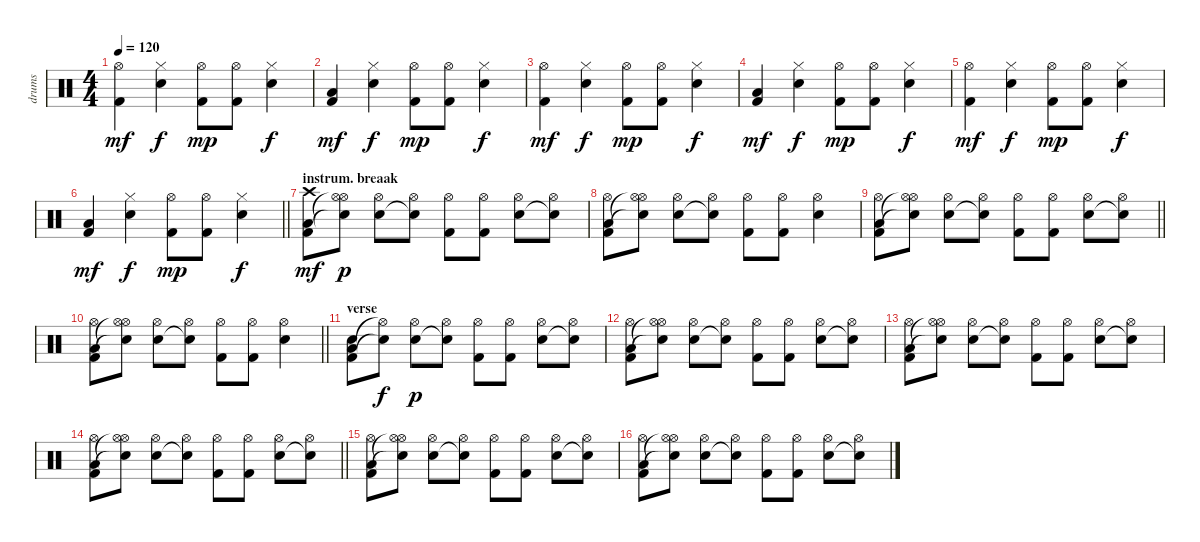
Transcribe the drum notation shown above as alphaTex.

\track ("drums" "drums") {instrument percussion}
\staff {score}
\articulation defaults
\ts (4 4)
\tempo 120
\clef neutral
\ks c
("Kick (hit) 2" "Hi-Hat (open)").4{dy mf} ("Electric Snare (hit)" "Hi-Hat (closed)").4{dy f} ("Kick (hit) 2" "Hi-Hat (open)").8{dy mp} ("Kick (hit) 2" "Hi-Hat (open)").8 ("Electric Snare (hit)" "Hi-Hat (closed)").4{dy f} |
("Kick (hit) 2" "Low Floor Tom (hit)").4{dy mf} ("Electric Snare (hit)" "Hi-Hat (closed)").4{dy f} ("Kick (hit) 2" "Hi-Hat (open)").8{dy mp} ("Kick (hit) 2" "Hi-Hat (open)").8 ("Electric Snare (hit)" "Hi-Hat (closed)").4{dy f} |
("Kick (hit) 2" "Hi-Hat (open)").4{dy mf} ("Electric Snare (hit)" "Hi-Hat (closed)").4{dy f} ("Kick (hit) 2" "Hi-Hat (open)").8{dy mp} ("Kick (hit) 2" "Hi-Hat (open)").8 ("Electric Snare (hit)" "Hi-Hat (closed)").4{dy f} |
("Kick (hit) 2" "Low Floor Tom (hit)").4{dy mf} ("Electric Snare (hit)" "Hi-Hat (closed)").4{dy f} ("Kick (hit) 2" "Hi-Hat (open)").8{dy mp} ("Kick (hit) 2" "Hi-Hat (open)").8 ("Electric Snare (hit)" "Hi-Hat (closed)").4{dy f} |
("Kick (hit) 2" "Hi-Hat (open)").4{dy mf} ("Electric Snare (hit)" "Hi-Hat (closed)").4{dy f} ("Kick (hit) 2" "Hi-Hat (open)").8{dy mp} ("Kick (hit) 2" "Hi-Hat (open)").8 ("Electric Snare (hit)" "Hi-Hat (closed)").4{dy f} |
\barLineRight lightlight
("Kick (hit) 2" "Low Floor Tom (hit)").4{dy mf} ("Electric Snare (hit)" "Hi-Hat (closed)").4{dy f} ("Kick (hit) 2" "Hi-Hat (open)").8{dy mp} ("Kick (hit) 2" "Hi-Hat (open)").8 ("Electric Snare (hit)" "Hi-Hat (closed)").4{dy f} |
\section ("" "instrum. breaak")
("Kick (hit) 2" "Crash high (hit)" "Low Floor Tom (hit)").8{dy mf} ("Snare (hit)"{t} "Hi-Hat (open)" "Hi-Hat (open)"{t}).8{dy p} ("Electric Snare (hit)" "Hi-Hat (open)").8 ("Snare (hit)"{t} "Hi-Hat (open)").8 ("Kick (hit) 2" "Hi-Hat (open)").8 ("Kick (hit) 2" "Hi-Hat (open)").8 ("Electric Snare (hit)" "Hi-Hat (open)").8 ("Snare (hit)"{t} "Hi-Hat (open)").8 |
("Kick (hit) 2" "Hi-Hat (open)" "Low Floor Tom (hit)").8 ("Snare (hit)"{t} "Hi-Hat (open)" "Hi-Hat (open)"{t}).8 ("Electric Snare (hit)" "Hi-Hat (open)").8 ("Snare (hit)"{t} "Hi-Hat (open)").8 ("Kick (hit) 2" "Hi-Hat (open)").8 ("Kick (hit) 2" "Hi-Hat (open)").8 ("Electric Snare (hit)" "Hi-Hat (open)").4 |
\barLineRight lightlight
("Kick (hit) 2" "Hi-Hat (open)" "Low Floor Tom (hit)").8 ("Snare (hit)"{t} "Hi-Hat (open)" "Hi-Hat (open)"{t}).8 ("Electric Snare (hit)" "Hi-Hat (open)").8 ("Snare (hit)"{t} "Hi-Hat (open)").8 ("Kick (hit) 2" "Hi-Hat (open)").8 ("Kick (hit) 2" "Hi-Hat (open)").8 ("Electric Snare (hit)" "Hi-Hat (open)").8 ("Snare (hit)"{t} "Hi-Hat (open)").8 |
\barLineRight lightlight
("Kick (hit) 2" "Hi-Hat (open)" "Low Floor Tom (hit)").8 ("Snare (hit)"{t} "Hi-Hat (open)" "Hi-Hat (open)"{t}).8 ("Electric Snare (hit)" "Hi-Hat (open)").8 ("Snare (hit)"{t} "Hi-Hat (open)").8 ("Kick (hit) 2" "Hi-Hat (open)").8 ("Kick (hit) 2" "Hi-Hat (open)").8 ("Electric Snare (hit)" "Hi-Hat (open)").4 |
\section ("" "verse")
("Kick (hit) 2" "Low Floor Tom (hit)" "Electric Snare (hit)").8 ("Snare (hit)"{t} "Hi-Hat (open)"{t}).8{dy f} ("Electric Snare (hit)" "Hi-Hat (open)").8{dy p} ("Snare (hit)"{t} "Hi-Hat (open)").8 ("Kick (hit) 2" "Hi-Hat (open)").8 ("Kick (hit) 2" "Hi-Hat (open)").8 ("Electric Snare (hit)" "Hi-Hat (open)").8 ("Snare (hit)"{t} "Hi-Hat (open)").8 |
("Kick (hit) 2" "Hi-Hat (open)" "Low Floor Tom (hit)").8 ("Snare (hit)"{t} "Hi-Hat (open)" "Hi-Hat (open)"{t}).8 ("Electric Snare (hit)" "Hi-Hat (open)").8 ("Snare (hit)"{t} "Hi-Hat (open)").8 ("Kick (hit) 2" "Hi-Hat (open)").8 ("Kick (hit) 2" "Hi-Hat (open)").8 ("Electric Snare (hit)" "Hi-Hat (open)").8 ("Snare (hit)"{t} "Hi-Hat (open)").8 |
("Kick (hit) 2" "Hi-Hat (open)" "Low Floor Tom (hit)").8 ("Snare (hit)"{t} "Hi-Hat (open)" "Hi-Hat (open)"{t}).8 ("Electric Snare (hit)" "Hi-Hat (open)").8 ("Snare (hit)"{t} "Hi-Hat (open)").8 ("Kick (hit) 2" "Hi-Hat (open)").8 ("Kick (hit) 2" "Hi-Hat (open)").8 ("Electric Snare (hit)" "Hi-Hat (open)").8 ("Snare (hit)"{t} "Hi-Hat (open)").8 |
\barLineRight lightlight
("Kick (hit) 2" "Hi-Hat (open)" "Low Floor Tom (hit)").8 ("Snare (hit)"{t} "Hi-Hat (open)" "Hi-Hat (open)"{t}).8 ("Electric Snare (hit)" "Hi-Hat (open)").8 ("Snare (hit)"{t} "Hi-Hat (open)").8 ("Kick (hit) 2" "Hi-Hat (open)").8 ("Kick (hit) 2" "Hi-Hat (open)").8 ("Electric Snare (hit)" "Hi-Hat (open)").8 ("Snare (hit)"{t} "Hi-Hat (open)").8 |
("Kick (hit) 2" "Hi-Hat (open)" "Low Floor Tom (hit)").8 ("Snare (hit)"{t} "Hi-Hat (open)" "Hi-Hat (open)"{t}).8 ("Electric Snare (hit)" "Hi-Hat (open)").8 ("Snare (hit)"{t} "Hi-Hat (open)").8 ("Kick (hit) 2" "Hi-Hat (open)").8 ("Kick (hit) 2" "Hi-Hat (open)").8 ("Electric Snare (hit)" "Hi-Hat (open)").8 ("Snare (hit)"{t} "Hi-Hat (open)").8 |
("Kick (hit) 2" "Hi-Hat (open)" "Low Floor Tom (hit)").8 ("Snare (hit)"{t} "Hi-Hat (open)" "Hi-Hat (open)"{t}).8 ("Electric Snare (hit)" "Hi-Hat (open)").8 ("Snare (hit)"{t} "Hi-Hat (open)").8 ("Kick (hit) 2" "Hi-Hat (open)").8 ("Kick (hit) 2" "Hi-Hat (open)").8 ("Electric Snare (hit)" "Hi-Hat (open)").8 ("Snare (hit)"{t} "Hi-Hat (open)").8
